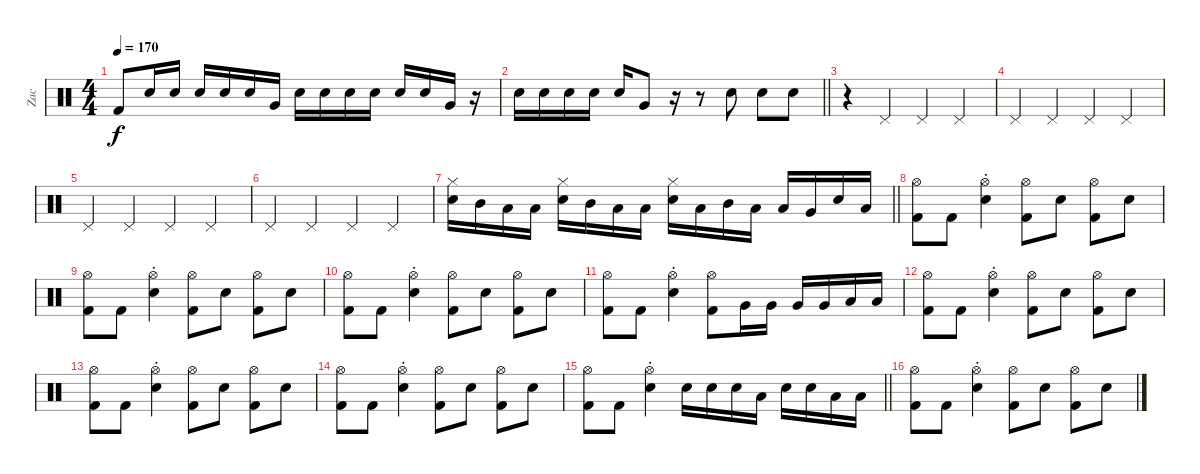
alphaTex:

\track ("Zac" "Zac") {instrument percussion}
\staff {score}
\articulation defaults
\ts (4 4)
\tempo 170
\clef neutral
\ks c "Kick (hit) 2".8{dy f} "Electric Snare (hit)".16 "Electric Snare (hit)".16 "Electric Snare (hit)".16 "Electric Snare (hit)".16 "Electric Snare (hit)".16 "Very Low Tom (hit)".16 "Electric Snare (hit)".16 "Electric Snare (hit)".16 "Electric Snare (hit)".16 "Electric Snare (hit)".16 "Electric Snare (hit)".16 "Electric Snare (hit)".16 "Very Low Tom (hit)".16
r.16 |
\barLineRight lightlight "Electric Snare (hit)".16 "Electric Snare (hit)".16 "Electric Snare (hit)".16 "Electric Snare (hit)".16 "Electric Snare (hit)".16 "Very Low Tom (hit)".8
r.16 r.8 "Electric Snare (hit)".8 "Electric Snare (hit)".8 "Electric Snare (hit)".8 |
\section ("" "")
r.4 "Pedal Hi-Hat (hit)".4 "Pedal Hi-Hat (hit)".4 "Pedal Hi-Hat (hit)".4 |
"Pedal Hi-Hat (hit)".4 "Pedal Hi-Hat (hit)".4 "Pedal Hi-Hat (hit)".4 "Pedal Hi-Hat (hit)".4 |
"Pedal Hi-Hat (hit)".4 "Pedal Hi-Hat (hit)".4 "Pedal Hi-Hat (hit)".4 "Pedal Hi-Hat (hit)".4 |
"Pedal Hi-Hat (hit)".4 "Pedal Hi-Hat (hit)".4 "Pedal Hi-Hat (hit)".4 "Pedal Hi-Hat (hit)".4 |
\barLineRight lightlight
("Hi-Hat (closed)" "Electric Snare (hit)").16 "Mid Tom (hit)".16 "Low Tom (hit)".16 "Low Floor Tom (hit)".16 ("Hi-Hat (closed)" "Electric Snare (hit)").16 "Mid Tom (hit)".16 "Low Tom (hit)".16 "Low Floor Tom (hit)".16 ("Hi-Hat (closed)" "Electric Snare (hit)").16 "Low Tom (hit)".16 "Mid Tom (hit)".16 "Low Tom (hit)".16 "Low Tom (hit)".16 "Very Low Tom (hit)".16 "Electric Snare (hit)".16 "Low Floor Tom (hit)".16 |
\section ("" "")
("Hi-Hat (open)" "Kick (hit) 2").8 "Kick (hit) 2".8 ("Hi-Hat (open)"{st} "Electric Snare (hit)").4 ("Hi-Hat (open)" "Kick (hit) 2").8 "Electric Snare (hit)".8 ("Hi-Hat (open)" "Kick (hit) 2").8 "Electric Snare (hit)".8 |
("Hi-Hat (open)" "Kick (hit) 2").8 "Kick (hit) 2".8 ("Hi-Hat (open)"{st} "Electric Snare (hit)").4 ("Hi-Hat (open)" "Kick (hit) 2").8 "Electric Snare (hit)".8 ("Hi-Hat (open)" "Kick (hit) 2").8 "Electric Snare (hit)".8 |
("Hi-Hat (open)" "Kick (hit) 2").8 "Kick (hit) 2".8 ("Hi-Hat (open)"{st} "Electric Snare (hit)").4 ("Hi-Hat (open)" "Kick (hit) 2").8 "Electric Snare (hit)".8 ("Hi-Hat (open)" "Kick (hit) 2").8 "Electric Snare (hit)".8 |
("Hi-Hat (open)" "Kick (hit) 2").8 "Kick (hit) 2".8 ("Hi-Hat (open)"{st} "Electric Snare (hit)").4 ("Hi-Hat (open)" "Kick (hit) 2").8 "Very Low Tom (hit)".16 "Very Low Tom (hit)".16 "Very Low Tom (hit)".16 "Very Low Tom (hit)".16 "Low Floor Tom (hit)".16 "Low Floor Tom (hit)".16 |
("Hi-Hat (open)" "Kick (hit) 2").8 "Kick (hit) 2".8 ("Hi-Hat (open)"{st} "Electric Snare (hit)").4 ("Hi-Hat (open)" "Kick (hit) 2").8 "Electric Snare (hit)".8 ("Hi-Hat (open)" "Kick (hit) 2").8 "Electric Snare (hit)".8 |
("Hi-Hat (open)" "Kick (hit) 2").8 "Kick (hit) 2".8 ("Hi-Hat (open)"{st} "Electric Snare (hit)").4 ("Hi-Hat (open)" "Kick (hit) 2").8 "Electric Snare (hit)".8 ("Hi-Hat (open)" "Kick (hit) 2").8 "Electric Snare (hit)".8 |
("Hi-Hat (open)" "Kick (hit) 2").8 "Kick (hit) 2".8 ("Hi-Hat (open)"{st} "Electric Snare (hit)").4 ("Hi-Hat (open)" "Kick (hit) 2").8 "Electric Snare (hit)".8 ("Hi-Hat (open)" "Kick (hit) 2").8 "Electric Snare (hit)".8 |
\barLineRight lightlight
("Hi-Hat (open)" "Kick (hit) 2").8 "Kick (hit) 2".8 ("Hi-Hat (open)"{st} "Electric Snare (hit)").4 "Electric Snare (hit)".16 "Electric Snare (hit)".16 "Electric Snare (hit)".16 "Low Tom (hit)".16 "Electric Snare (hit)".16 "Electric Snare (hit)".16 "Low Floor Tom (hit)".16 "Low Floor Tom (hit)".16 |
\section ("" "")
("Hi-Hat (open)" "Kick (hit) 2").8 "Kick (hit) 2".8 ("Hi-Hat (open)"{st} "Electric Snare (hit)").4 ("Hi-Hat (open)" "Kick (hit) 2").8 "Electric Snare (hit)".8 ("Hi-Hat (open)" "Kick (hit) 2").8 "Electric Snare (hit)".8
